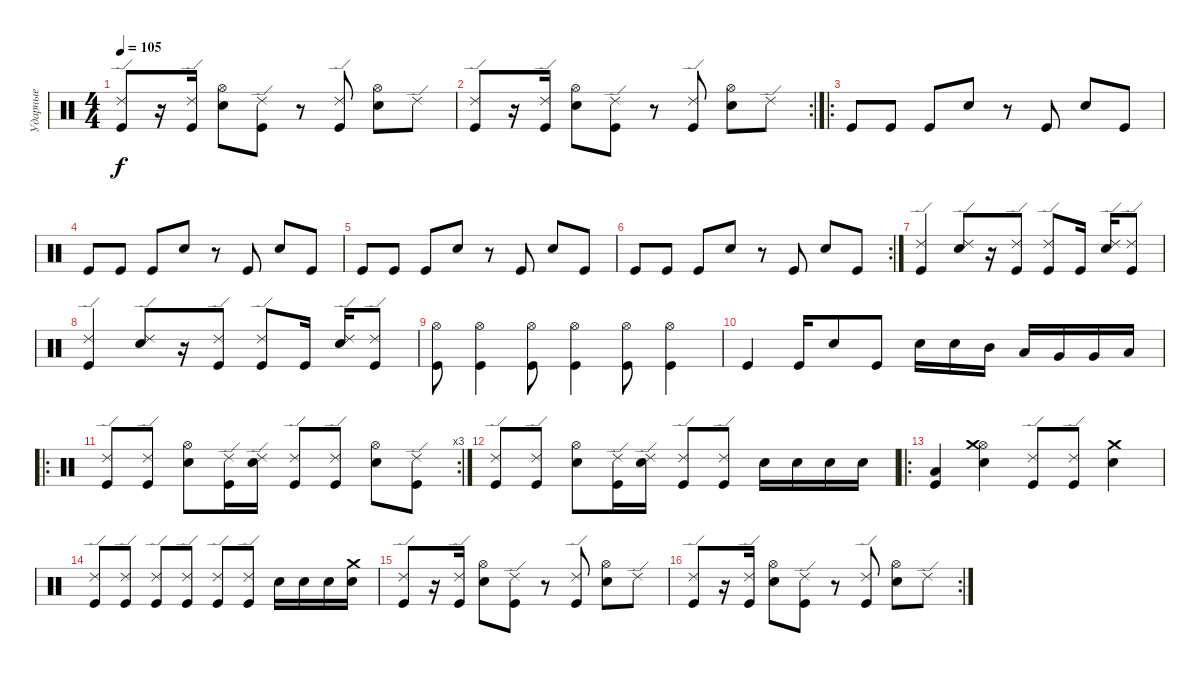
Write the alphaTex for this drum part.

\track ("Ударные" "Ударные") {instrument percussion}
\staff {score}
\articulation defaults
\ts (4 4)
\tempo 105
\clef neutral
\ks c
("Ride (edge) 2" "Kick (hit)").8{dy f} r.16 ("Ride (edge) 2" "Kick (hit)").16 ("Hi-Hat (open)" "Electric Snare (hit)").8 ("Ride (edge) 2" "Kick (hit)").8 r.8 ("Ride (edge) 2" "Kick (hit)").8 ("Hi-Hat (open)" "Electric Snare (hit)").8 "Ride (edge) 2".8 |
\rc 2
("Ride (edge) 2" "Kick (hit)").8 r.16 ("Ride (edge) 2" "Kick (hit)").16 ("Hi-Hat (open)" "Electric Snare (hit)").8 ("Ride (edge) 2" "Kick (hit)").8 r.8 ("Ride (edge) 2" "Kick (hit)").8 ("Hi-Hat (open)" "Electric Snare (hit)").8 "Ride (edge) 2".8 |
\ro "Kick (hit)".8 "Kick (hit)".8 "Kick (hit)".8 "Electric Snare (hit)".8
r.8 "Kick (hit)".8 "Electric Snare (hit)".8 "Kick (hit)".8 |
"Kick (hit)".8 "Kick (hit)".8 "Kick (hit)".8 "Electric Snare (hit)".8 r.8 "Kick (hit)".8 "Electric Snare (hit)".8 "Kick (hit)".8 |
"Kick (hit)".8 "Kick (hit)".8 "Kick (hit)".8 "Electric Snare (hit)".8 r.8 "Kick (hit)".8 "Electric Snare (hit)".8 "Kick (hit)".8 |
\rc 2 "Kick (hit)".8 "Kick (hit)".8 "Kick (hit)".8 "Electric Snare (hit)".8
r.8 "Kick (hit)".8 "Electric Snare (hit)".8 "Kick (hit)".8 |
("Ride (edge) 2" "Kick (hit)").4 ("Ride (edge) 2" "Electric Snare (hit)").8 r.16 ("Ride (edge) 2" "Kick (hit)").8 ("Ride (edge) 2" "Kick (hit)").8 "Kick (hit)".16 ("Ride (edge) 2" "Electric Snare (hit)").16 ("Ride (edge) 2" "Kick (hit)").8 |
("Ride (edge) 2" "Kick (hit)").4 ("Ride (edge) 2" "Electric Snare (hit)").8 r.16 ("Ride (edge) 2" "Kick (hit)").8 ("Ride (edge) 2" "Kick (hit)").8 "Kick (hit)".16 ("Ride (edge) 2" "Electric Snare (hit)").16 ("Ride (edge) 2" "Kick (hit)").8 |
("Hi-Hat (open)" "Kick (hit)").8 ("Hi-Hat (open)" "Kick (hit)").4 ("Hi-Hat (open)" "Kick (hit)").8 ("Hi-Hat (open)" "Kick (hit)").4 ("Hi-Hat (open)" "Kick (hit)").8 ("Hi-Hat (open)" "Kick (hit)").4 |
"Kick (hit)".4 "Kick (hit)".16 "Electric Snare (hit)".8 "Kick (hit)".8 "Electric Snare (hit)".16 "Electric Snare (hit)".16 "Mid Tom (hit)".16 "Low Tom (hit)".16 "Very Low Tom (hit)".16 "Very Low Tom (hit)".16 "Low Floor Tom (hit)".16 |
\ro
\rc 3
("Ride (edge) 2" "Kick (hit)").8 ("Ride (edge) 2" "Kick (hit)").8 ("Hi-Hat (open)" "Electric Snare (hit)").8 ("Ride (edge) 2" "Kick (hit)").16 ("Ride (edge) 2" "Electric Snare (hit)").16 ("Ride (edge) 2" "Kick (hit)").8 ("Ride (edge) 2" "Kick (hit)").8 ("Hi-Hat (open)" "Electric Snare (hit)").8 ("Ride (edge) 2" "Kick (hit)").8 |
("Ride (edge) 2" "Kick (hit)").8 ("Ride (edge) 2" "Kick (hit)").8 ("Hi-Hat (open)" "Electric Snare (hit)").8 ("Ride (edge) 2" "Kick (hit)").16 ("Ride (edge) 2" "Electric Snare (hit)").16 ("Ride (edge) 2" "Kick (hit)").8 ("Ride (edge) 2" "Kick (hit)").8 "Electric Snare (hit)".16 "Electric Snare (hit)".16 "Electric Snare (hit)".16 "Electric Snare (hit)".16 |
\ro
("Low Floor Tom (hit)" "Kick (hit)").4 ("Hi-Hat (open)" "Crash medium (hit)" "Electric Snare (hit)").4 ("Ride (edge) 2" "Kick (hit)").8 ("Ride (edge) 2" "Kick (hit)").8 ("Crash medium (hit)" "Electric Snare (hit)").4 |
("Ride (edge) 2" "Kick (hit)").8 ("Ride (edge) 2" "Kick (hit)").8 ("Ride (edge) 2" "Kick (hit)").8 ("Ride (edge) 2" "Kick (hit)").8 ("Ride (edge) 2" "Kick (hit)").8 ("Ride (edge) 2" "Kick (hit)").8 "Electric Snare (hit)".16 "Electric Snare (hit)".16 "Electric Snare (hit)".16 ("Crash medium (hit)" "Electric Snare (hit)").16 |
("Ride (edge) 2" "Kick (hit)").8 r.16 ("Ride (edge) 2" "Kick (hit)").16 ("Hi-Hat (open)" "Electric Snare (hit)").8 ("Ride (edge) 2" "Kick (hit)").8 r.8 ("Ride (edge) 2" "Kick (hit)").8 ("Hi-Hat (open)" "Electric Snare (hit)").8 "Ride (edge) 2".8 |
\rc 2
("Ride (edge) 2" "Kick (hit)").8 r.16 ("Ride (edge) 2" "Kick (hit)").16 ("Hi-Hat (open)" "Electric Snare (hit)").8 ("Ride (edge) 2" "Kick (hit)").8 r.8 ("Ride (edge) 2" "Kick (hit)").8 ("Hi-Hat (open)" "Electric Snare (hit)").8 "Ride (edge) 2".8
